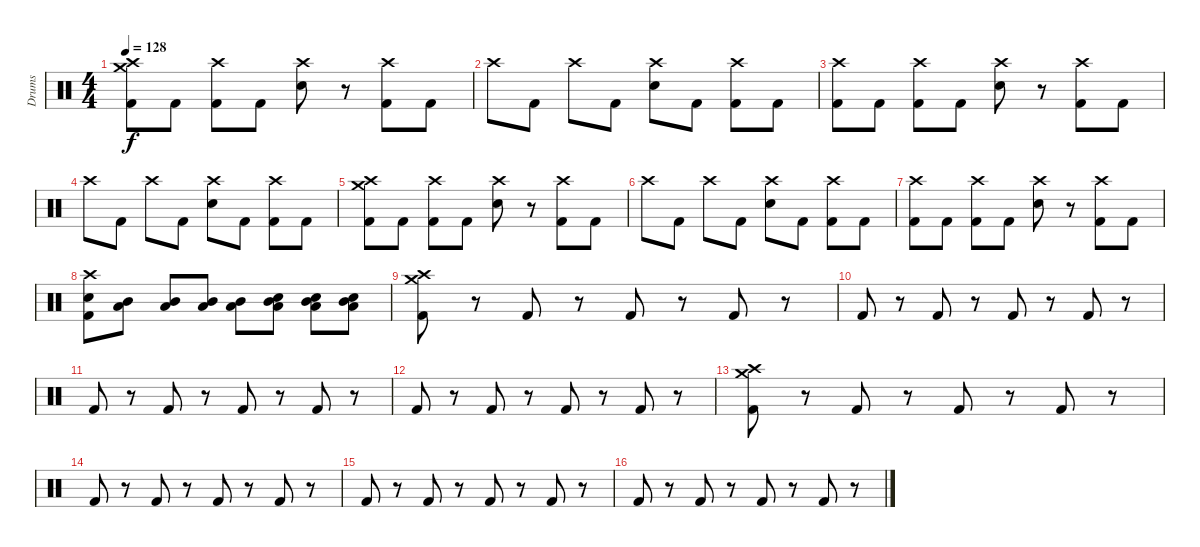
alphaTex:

\track ("Drums" "Drums") {instrument percussion}
\staff {score}
\articulation defaults
\ts (4 4)
\tempo 128
\clef neutral
\ks c
("Crash high (hit)" "Crash medium (hit)" "Kick (hit) 2").8{dy f} "Kick (hit) 2".8 ("Crash high (hit)" "Kick (hit) 2").8 "Kick (hit) 2".8 ("Crash high (hit)" "Snare (hit) 2").8 r.8 ("Crash high (hit)" "Kick (hit) 2").8 "Kick (hit) 2".8 |
"Crash high (hit)".8 "Kick (hit) 2".8 "Crash high (hit)".8 "Kick (hit) 2".8 ("Crash high (hit)" "Snare (hit) 2").8 "Kick (hit) 2".8 ("Crash high (hit)" "Kick (hit) 2").8 "Kick (hit) 2".8 |
("Crash high (hit)" "Kick (hit) 2").8 "Kick (hit) 2".8 ("Crash high (hit)" "Kick (hit) 2").8 "Kick (hit) 2".8 ("Crash high (hit)" "Snare (hit) 2").8 r.8 ("Crash high (hit)" "Kick (hit) 2").8 "Kick (hit) 2".8 |
"Crash high (hit)".8 "Kick (hit) 2".8 "Crash high (hit)".8 "Kick (hit) 2".8 ("Crash high (hit)" "Snare (hit) 2").8 "Kick (hit) 2".8 ("Crash high (hit)" "Kick (hit) 2").8 "Kick (hit) 2".8 |
("Crash high (hit)" "Crash medium (hit)" "Kick (hit) 2").8 "Kick (hit) 2".8 ("Crash high (hit)" "Kick (hit) 2").8 "Kick (hit) 2".8 ("Crash high (hit)" "Snare (hit) 2").8 r.8 ("Crash high (hit)" "Kick (hit) 2").8 "Kick (hit) 2".8 |
"Crash high (hit)".8 "Kick (hit) 2".8 "Crash high (hit)".8 "Kick (hit) 2".8 ("Crash high (hit)" "Snare (hit) 2").8 "Kick (hit) 2".8 ("Crash high (hit)" "Kick (hit) 2").8 "Kick (hit) 2".8 |
("Crash high (hit)" "Kick (hit) 2").8 "Kick (hit) 2".8 ("Crash high (hit)" "Kick (hit) 2").8 "Kick (hit) 2".8 ("Crash high (hit)" "Snare (hit) 2").8 r.8 ("Crash high (hit)" "Kick (hit) 2").8 "Kick (hit) 2".8 |
("Crash high (hit)" "Snare (hit) 2" "Kick (hit) 2").8 ("Low Tom (hit)" "Mid Tom (hit)").8 ("Low Tom (hit)" "Mid Tom (hit)").8 ("Low Tom (hit)" "Mid Tom (hit)").8 ("Low Tom (hit)" "Mid Tom (hit)").8 ("Snare (hit) 2" "Low Tom (hit)" "Mid Tom (hit)").8 ("Snare (hit) 2" "Low Tom (hit)" "Mid Tom (hit)").8 ("Snare (hit) 2" "Low Tom (hit)" "Mid Tom (hit)").8 |
("Crash high (hit)" "Crash medium (hit)" "Kick (hit) 2").8 r.8 "Kick (hit) 2".8 r.8 "Kick (hit) 2".8 r.8 "Kick (hit) 2".8 r.8 |
"Kick (hit) 2".8 r.8 "Kick (hit) 2".8 r.8 "Kick (hit) 2".8 r.8 "Kick (hit) 2".8 r.8 |
"Kick (hit) 2".8 r.8 "Kick (hit) 2".8 r.8 "Kick (hit) 2".8 r.8 "Kick (hit) 2".8 r.8 |
"Kick (hit) 2".8 r.8 "Kick (hit) 2".8 r.8 "Kick (hit) 2".8 r.8 "Kick (hit) 2".8 r.8 |
("Crash high (hit)" "Crash medium (hit)" "Kick (hit) 2").8 r.8 "Kick (hit) 2".8 r.8 "Kick (hit) 2".8 r.8 "Kick (hit) 2".8 r.8 |
"Kick (hit) 2".8 r.8 "Kick (hit) 2".8 r.8 "Kick (hit) 2".8 r.8 "Kick (hit) 2".8 r.8 |
"Kick (hit) 2".8 r.8 "Kick (hit) 2".8 r.8 "Kick (hit) 2".8 r.8 "Kick (hit) 2".8 r.8 |
"Kick (hit) 2".8 r.8 "Kick (hit) 2".8 r.8 "Kick (hit) 2".8 r.8 "Kick (hit) 2".8 r.8
